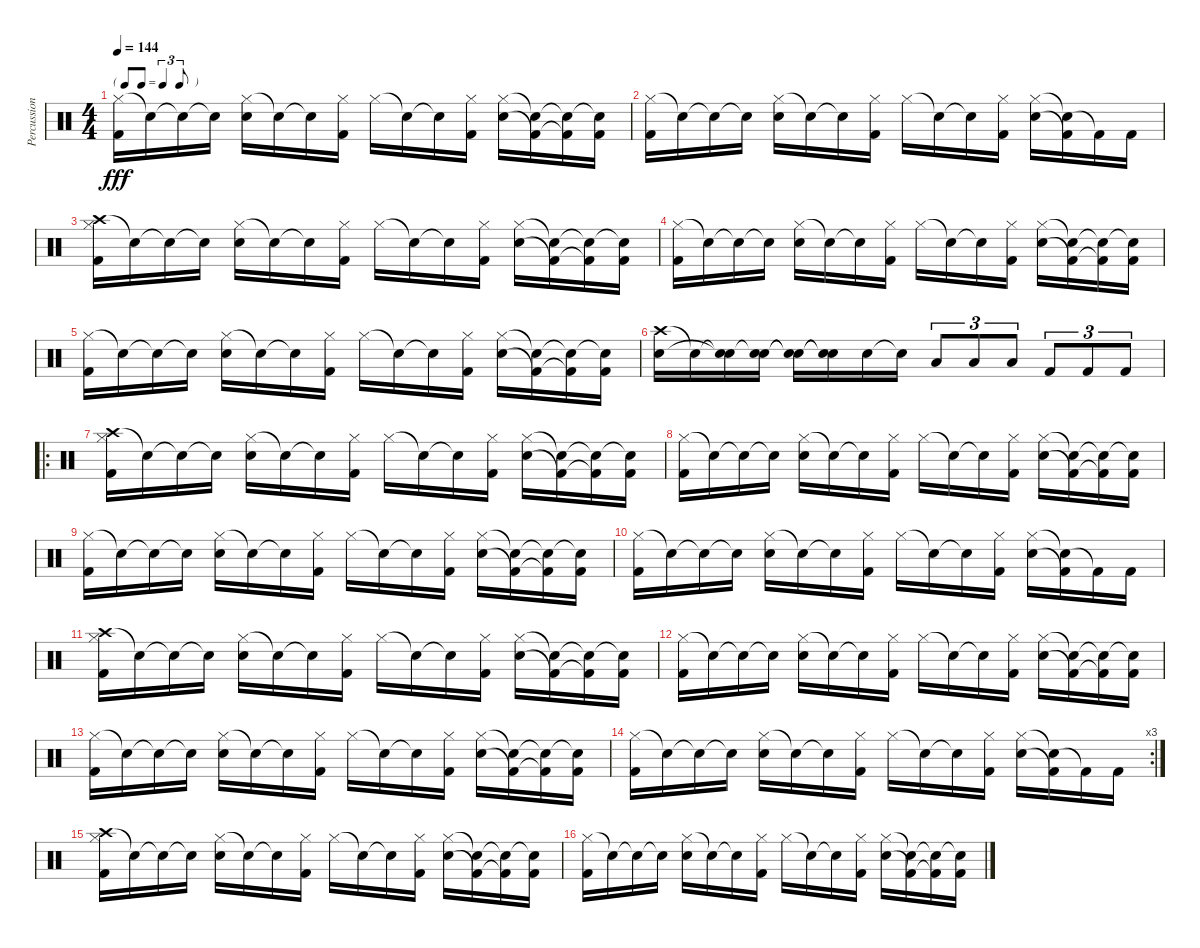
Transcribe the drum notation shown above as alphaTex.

\track ("Percussion" "Percussion") {instrument percussion}
\staff {score}
\articulation defaults
\ts (4 4)
\tf triplet8th
\tempo 144
\clef neutral
\ks c
("Hi-Hat (closed)" "Kick (hit) 2").16{dy fff} "Snare (hit)"{t}.16 "Snare (hit)"{t}.16 "Snare (hit)"{t}.16 ("Hi-Hat (closed)" "Electric Snare (hit)").16 "Snare (hit)"{t}.16 "Snare (hit)"{t}.16 ("Hi-Hat (closed)" "Kick (hit) 2").16 "Hi-Hat (closed)".16 "Snare (hit)"{t}.16 "Snare (hit)"{t}.16 ("Hi-Hat (closed)" "Kick (hit) 2").16 ("Hi-Hat (closed)" "Electric Snare (hit)").16 ("Snare (hit)"{t} "Kick (hit) 2"{t}).16 ("Snare (hit)"{t} "Kick (hit) 2"{t}).16 ("Snare (hit)"{t} "Kick (hit) 2").16 |
("Hi-Hat (closed)" "Kick (hit) 2").16 "Snare (hit)"{t}.16 "Snare (hit)"{t}.16 "Snare (hit)"{t}.16 ("Hi-Hat (closed)" "Electric Snare (hit)").16 "Snare (hit)"{t}.16 "Snare (hit)"{t}.16 ("Hi-Hat (closed)" "Kick (hit) 2").16 "Hi-Hat (closed)".16 "Snare (hit)"{t}.16 "Snare (hit)"{t}.16 ("Hi-Hat (closed)" "Kick (hit) 2").16 ("Hi-Hat (closed)" "Electric Snare (hit)").16 ("Snare (hit)"{t} "Kick (hit) 2"{t}).16 "Kick (hit) 2"{t}.16 "Kick (hit) 2".16 |
("Crash high (hit)" "Hi-Hat (closed)" "Kick (hit) 2").16 "Snare (hit)"{t}.16 "Snare (hit)"{t}.16 "Snare (hit)"{t}.16 ("Hi-Hat (closed)" "Electric Snare (hit)").16 "Snare (hit)"{t}.16 "Snare (hit)"{t}.16 ("Hi-Hat (closed)" "Kick (hit) 2").16 "Hi-Hat (closed)".16 "Snare (hit)"{t}.16 "Snare (hit)"{t}.16 ("Hi-Hat (closed)" "Kick (hit) 2").16 ("Hi-Hat (closed)" "Electric Snare (hit)").16 ("Snare (hit)"{t} "Kick (hit) 2"{t}).16 ("Snare (hit)"{t} "Kick (hit) 2"{t}).16 ("Snare (hit)"{t} "Kick (hit) 2").16 |
("Hi-Hat (closed)" "Kick (hit) 2").16 "Snare (hit)"{t}.16 "Snare (hit)"{t}.16 "Snare (hit)"{t}.16 ("Hi-Hat (closed)" "Electric Snare (hit)").16 "Snare (hit)"{t}.16 "Snare (hit)"{t}.16 ("Hi-Hat (closed)" "Kick (hit) 2").16 "Hi-Hat (closed)".16 "Snare (hit)"{t}.16 "Snare (hit)"{t}.16 ("Hi-Hat (closed)" "Kick (hit) 2").16 ("Hi-Hat (closed)" "Electric Snare (hit)").16 ("Snare (hit)"{t} "Kick (hit) 2"{t}).16 ("Snare (hit)"{t} "Kick (hit) 2"{t}).16 ("Snare (hit)"{t} "Kick (hit) 2").16 |
("Hi-Hat (closed)" "Kick (hit) 2").16 "Snare (hit)"{t}.16 "Snare (hit)"{t}.16 "Snare (hit)"{t}.16 ("Hi-Hat (closed)" "Electric Snare (hit)").16 "Snare (hit)"{t}.16 "Snare (hit)"{t}.16 ("Hi-Hat (closed)" "Kick (hit) 2").16 "Hi-Hat (closed)".16 "Snare (hit)"{t}.16 "Snare (hit)"{t}.16 ("Hi-Hat (closed)" "Kick (hit) 2").16 ("Hi-Hat (closed)" "Electric Snare (hit)").16 ("Snare (hit)"{t} "Kick (hit) 2"{t}).16 ("Snare (hit)"{t} "Kick (hit) 2"{t}).16 ("Snare (hit)"{t} "Kick (hit) 2").16 |
("Crash high (hit)" "Electric Snare (hit)").16 "Snare (hit)"{t}.16 ("Snare (hit)"{t} "Electric Snare (hit)"{t}).16 ("Snare (hit)"{t} "Electric Snare (hit)").16 ("Snare (hit)"{t} "Snare (hit)"{t}).16 ("Snare (hit)"{t} "Snare (hit)"{t}).16 "Electric Snare (hit)".16 "Snare (hit)"{t}.16 "Low Floor Tom (hit)".8{tu (3 2)} "Low Floor Tom (hit)".8{tu (3 2)} "Low Floor Tom (hit)".8{tu (3 2)} "Kick (hit) 2".8{tu (3 2)} "Kick (hit) 2".8{tu (3 2)} "Kick (hit) 2".8{tu (3 2)} |
\ro
("Crash high (hit)" "Hi-Hat (closed)" "Kick (hit) 2").16 "Snare (hit)"{t}.16 "Snare (hit)"{t}.16 "Snare (hit)"{t}.16 ("Hi-Hat (closed)" "Electric Snare (hit)").16 "Snare (hit)"{t}.16 "Snare (hit)"{t}.16 ("Hi-Hat (closed)" "Kick (hit) 2").16 "Hi-Hat (closed)".16 "Snare (hit)"{t}.16 "Snare (hit)"{t}.16 ("Hi-Hat (closed)" "Kick (hit) 2").16 ("Hi-Hat (closed)" "Electric Snare (hit)").16 ("Snare (hit)"{t} "Kick (hit) 2"{t}).16 ("Snare (hit)"{t} "Kick (hit) 2"{t}).16 ("Snare (hit)"{t} "Kick (hit) 2").16 |
("Hi-Hat (closed)" "Kick (hit) 2").16 "Snare (hit)"{t}.16 "Snare (hit)"{t}.16 "Snare (hit)"{t}.16 ("Hi-Hat (closed)" "Electric Snare (hit)").16 "Snare (hit)"{t}.16 "Snare (hit)"{t}.16 ("Hi-Hat (closed)" "Kick (hit) 2").16 "Hi-Hat (closed)".16 "Snare (hit)"{t}.16 "Snare (hit)"{t}.16 ("Hi-Hat (closed)" "Kick (hit) 2").16 ("Hi-Hat (closed)" "Electric Snare (hit)").16 ("Snare (hit)"{t} "Kick (hit) 2"{t}).16 ("Snare (hit)"{t} "Kick (hit) 2"{t}).16 ("Snare (hit)"{t} "Kick (hit) 2").16 |
("Hi-Hat (closed)" "Kick (hit) 2").16 "Snare (hit)"{t}.16 "Snare (hit)"{t}.16 "Snare (hit)"{t}.16 ("Hi-Hat (closed)" "Electric Snare (hit)").16 "Snare (hit)"{t}.16 "Snare (hit)"{t}.16 ("Hi-Hat (closed)" "Kick (hit) 2").16 "Hi-Hat (closed)".16 "Snare (hit)"{t}.16 "Snare (hit)"{t}.16 ("Hi-Hat (closed)" "Kick (hit) 2").16 ("Hi-Hat (closed)" "Electric Snare (hit)").16 ("Snare (hit)"{t} "Kick (hit) 2"{t}).16 ("Snare (hit)"{t} "Kick (hit) 2"{t}).16 ("Snare (hit)"{t} "Kick (hit) 2").16 |
("Hi-Hat (closed)" "Kick (hit) 2").16 "Snare (hit)"{t}.16 "Snare (hit)"{t}.16 "Snare (hit)"{t}.16 ("Hi-Hat (closed)" "Electric Snare (hit)").16 "Snare (hit)"{t}.16 "Snare (hit)"{t}.16 ("Hi-Hat (closed)" "Kick (hit) 2").16 "Hi-Hat (closed)".16 "Snare (hit)"{t}.16 "Snare (hit)"{t}.16 ("Hi-Hat (closed)" "Kick (hit) 2").16 ("Hi-Hat (closed)" "Electric Snare (hit)").16 ("Snare (hit)"{t} "Kick (hit) 2"{t}).16 "Kick (hit) 2"{t}.16 "Kick (hit) 2".16 |
("Crash high (hit)" "Hi-Hat (closed)" "Kick (hit) 2").16 "Snare (hit)"{t}.16 "Snare (hit)"{t}.16 "Snare (hit)"{t}.16 ("Hi-Hat (closed)" "Electric Snare (hit)").16 "Snare (hit)"{t}.16 "Snare (hit)"{t}.16 ("Hi-Hat (closed)" "Kick (hit) 2").16 "Hi-Hat (closed)".16 "Snare (hit)"{t}.16 "Snare (hit)"{t}.16 ("Hi-Hat (closed)" "Kick (hit) 2").16 ("Hi-Hat (closed)" "Electric Snare (hit)").16 ("Snare (hit)"{t} "Kick (hit) 2"{t}).16 ("Snare (hit)"{t} "Kick (hit) 2"{t}).16 ("Snare (hit)"{t} "Kick (hit) 2").16 |
("Hi-Hat (closed)" "Kick (hit) 2").16 "Snare (hit)"{t}.16 "Snare (hit)"{t}.16 "Snare (hit)"{t}.16 ("Hi-Hat (closed)" "Electric Snare (hit)").16 "Snare (hit)"{t}.16 "Snare (hit)"{t}.16 ("Hi-Hat (closed)" "Kick (hit) 2").16 "Hi-Hat (closed)".16 "Snare (hit)"{t}.16 "Snare (hit)"{t}.16 ("Hi-Hat (closed)" "Kick (hit) 2").16 ("Hi-Hat (closed)" "Electric Snare (hit)").16 ("Snare (hit)"{t} "Kick (hit) 2"{t}).16 ("Snare (hit)"{t} "Kick (hit) 2"{t}).16 ("Snare (hit)"{t} "Kick (hit) 2").16 |
("Hi-Hat (closed)" "Kick (hit) 2").16 "Snare (hit)"{t}.16 "Snare (hit)"{t}.16 "Snare (hit)"{t}.16 ("Hi-Hat (closed)" "Electric Snare (hit)").16 "Snare (hit)"{t}.16 "Snare (hit)"{t}.16 ("Hi-Hat (closed)" "Kick (hit) 2").16 "Hi-Hat (closed)".16 "Snare (hit)"{t}.16 "Snare (hit)"{t}.16 ("Hi-Hat (closed)" "Kick (hit) 2").16 ("Hi-Hat (closed)" "Electric Snare (hit)").16 ("Snare (hit)"{t} "Kick (hit) 2"{t}).16 ("Snare (hit)"{t} "Kick (hit) 2"{t}).16 ("Snare (hit)"{t} "Kick (hit) 2").16 |
\rc 3
("Hi-Hat (closed)" "Kick (hit) 2").16 "Snare (hit)"{t}.16 "Snare (hit)"{t}.16 "Snare (hit)"{t}.16 ("Hi-Hat (closed)" "Electric Snare (hit)").16 "Snare (hit)"{t}.16 "Snare (hit)"{t}.16 ("Hi-Hat (closed)" "Kick (hit) 2").16 "Hi-Hat (closed)".16 "Snare (hit)"{t}.16 "Snare (hit)"{t}.16 ("Hi-Hat (closed)" "Kick (hit) 2").16 ("Hi-Hat (closed)" "Electric Snare (hit)").16 ("Snare (hit)"{t} "Kick (hit) 2"{t}).16 "Kick (hit) 2"{t}.16 "Kick (hit) 2".16 |
("Crash high (hit)" "Hi-Hat (closed)" "Kick (hit) 2").16 "Snare (hit)"{t}.16 "Snare (hit)"{t}.16 "Snare (hit)"{t}.16 ("Hi-Hat (closed)" "Electric Snare (hit)").16 "Snare (hit)"{t}.16 "Snare (hit)"{t}.16 ("Hi-Hat (closed)" "Kick (hit) 2").16 "Hi-Hat (closed)".16 "Snare (hit)"{t}.16 "Snare (hit)"{t}.16 ("Hi-Hat (closed)" "Kick (hit) 2").16 ("Hi-Hat (closed)" "Electric Snare (hit)").16 ("Snare (hit)"{t} "Kick (hit) 2"{t}).16 ("Snare (hit)"{t} "Kick (hit) 2"{t}).16 ("Snare (hit)"{t} "Kick (hit) 2").16 |
("Hi-Hat (closed)" "Kick (hit) 2").16 "Snare (hit)"{t}.16 "Snare (hit)"{t}.16 "Snare (hit)"{t}.16 ("Hi-Hat (closed)" "Electric Snare (hit)").16 "Snare (hit)"{t}.16 "Snare (hit)"{t}.16 ("Hi-Hat (closed)" "Kick (hit) 2").16 "Hi-Hat (closed)".16 "Snare (hit)"{t}.16 "Snare (hit)"{t}.16 ("Hi-Hat (closed)" "Kick (hit) 2").16 ("Hi-Hat (closed)" "Electric Snare (hit)").16 ("Snare (hit)"{t} "Kick (hit) 2"{t}).16 ("Snare (hit)"{t} "Kick (hit) 2"{t}).16 ("Snare (hit)"{t} "Kick (hit) 2").16
